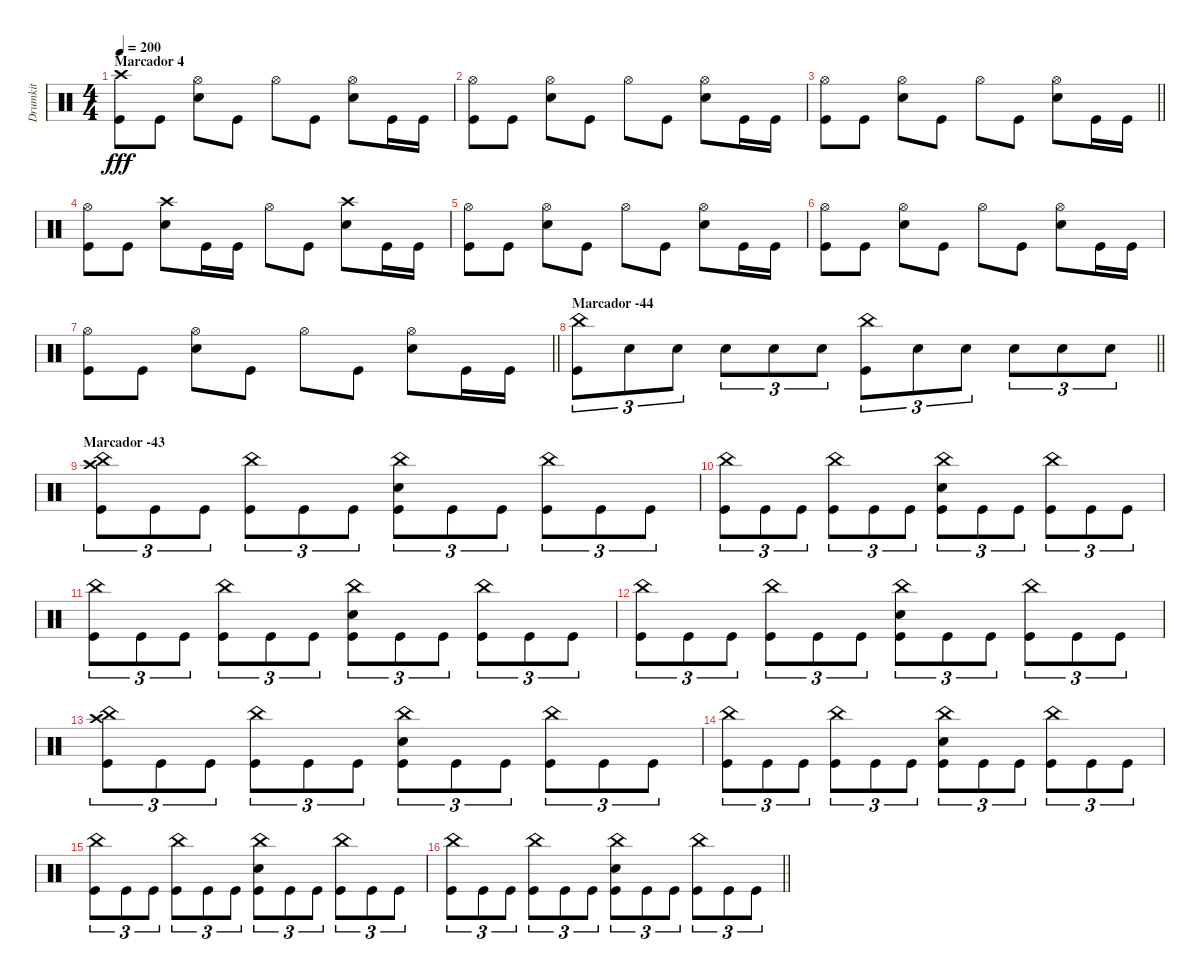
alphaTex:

\track ("Drumkit" "Drumkit") {instrument percussion}
\staff {score}
\articulation defaults
\ts (4 4)
\section ("" "Marcador 4")
\tempo 200
\clef neutral
\ks c
("Crash high (hit)" "Kick (hit)").8{dy fff} "Kick (hit)".8 ("Hi-Hat (open)" "Snare (hit) 2").8 "Kick (hit)".8 "Hi-Hat (open)".8 "Kick (hit)".8 ("Hi-Hat (open)" "Snare (hit) 2").8 "Kick (hit)".16 "Kick (hit)".16 |
("Hi-Hat (open)" "Kick (hit)").8 "Kick (hit)".8 ("Hi-Hat (open)" "Snare (hit) 2").8 "Kick (hit)".8 "Hi-Hat (open)".8 "Kick (hit)".8 ("Hi-Hat (open)" "Snare (hit) 2").8 "Kick (hit)".16 "Kick (hit)".16 |
\barLineRight lightlight
("Hi-Hat (open)" "Kick (hit)").8 "Kick (hit)".8 ("Hi-Hat (open)" "Snare (hit) 2").8 "Kick (hit)".8 "Hi-Hat (open)".8 "Kick (hit)".8 ("Hi-Hat (open)" "Snare (hit) 2").8 "Kick (hit)".16 "Kick (hit)".16 |
("Hi-Hat (open)" "Kick (hit)").8 "Kick (hit)".8 ("Crash high (hit)" "Snare (hit) 2").8 "Kick (hit)".16 "Kick (hit)".16 "Hi-Hat (open)".8 "Kick (hit)".8 ("Crash high (hit)" "Snare (hit) 2").8 "Kick (hit)".16 "Kick (hit)".16 |
("Hi-Hat (open)" "Kick (hit)").8 "Kick (hit)".8 ("Hi-Hat (open)" "Snare (hit) 2").8 "Kick (hit)".8 "Hi-Hat (open)".8 "Kick (hit)".8 ("Hi-Hat (open)" "Snare (hit) 2").8 "Kick (hit)".16 "Kick (hit)".16 |
("Hi-Hat (open)" "Kick (hit)").8 "Kick (hit)".8 ("Hi-Hat (open)" "Snare (hit) 2").8 "Kick (hit)".8 "Hi-Hat (open)".8 "Kick (hit)".8 ("Hi-Hat (open)" "Snare (hit) 2").8 "Kick (hit)".16 "Kick (hit)".16 |
\barLineRight lightlight
("Hi-Hat (open)" "Kick (hit)").8 "Kick (hit)".8 ("Hi-Hat (open)" "Snare (hit) 2").8 "Kick (hit)".8 "Hi-Hat (open)".8 "Kick (hit)".8 ("Hi-Hat (open)" "Snare (hit) 2").8 "Kick (hit)".16 "Kick (hit)".16 |
\section ("" "Marcador -44")
\barLineRight lightlight
("China (hit)" "Kick (hit)").8{tu (3 2)} "Snare (hit) 2".8{tu (3 2)} "Snare (hit) 2".8{tu (3 2)} "Snare (hit) 2".8{tu (3 2)} "Snare (hit) 2".8{tu (3 2)} "Snare (hit) 2".8{tu (3 2)} ("China (hit)" "Kick (hit)").8{tu (3 2)} "Snare (hit) 2".8{tu (3 2)} "Snare (hit) 2".8{tu (3 2)} "Snare (hit) 2".8{tu (3 2)} "Snare (hit) 2".8{tu (3 2)} "Snare (hit) 2".8{tu (3 2)} |
\section ("" "Marcador -43")
("Crash high (hit)" "China (hit)" "Kick (hit)").8{tu (3 2)} "Kick (hit)".8{tu (3 2)} "Kick (hit)".8{tu (3 2)} ("China (hit)" "Kick (hit)").8{tu (3 2)} "Kick (hit)".8{tu (3 2)} "Kick (hit)".8{tu (3 2)} ("China (hit)" "Snare (hit) 2" "Kick (hit)").8{tu (3 2)} "Kick (hit)".8{tu (3 2)} "Kick (hit)".8{tu (3 2)} ("China (hit)" "Kick (hit)").8{tu (3 2)} "Kick (hit)".8{tu (3 2)} "Kick (hit)".8{tu (3 2)} |
("China (hit)" "Kick (hit)").8{tu (3 2)} "Kick (hit)".8{tu (3 2)} "Kick (hit)".8{tu (3 2)} ("China (hit)" "Kick (hit)").8{tu (3 2)} "Kick (hit)".8{tu (3 2)} "Kick (hit)".8{tu (3 2)} ("China (hit)" "Snare (hit) 2" "Kick (hit)").8{tu (3 2)} "Kick (hit)".8{tu (3 2)} "Kick (hit)".8{tu (3 2)} ("China (hit)" "Kick (hit)").8{tu (3 2)} "Kick (hit)".8{tu (3 2)} "Kick (hit)".8{tu (3 2)} |
("China (hit)" "Kick (hit)").8{tu (3 2)} "Kick (hit)".8{tu (3 2)} "Kick (hit)".8{tu (3 2)} ("China (hit)" "Kick (hit)").8{tu (3 2)} "Kick (hit)".8{tu (3 2)} "Kick (hit)".8{tu (3 2)} ("China (hit)" "Snare (hit) 2" "Kick (hit)").8{tu (3 2)} "Kick (hit)".8{tu (3 2)} "Kick (hit)".8{tu (3 2)} ("China (hit)" "Kick (hit)").8{tu (3 2)} "Kick (hit)".8{tu (3 2)} "Kick (hit)".8{tu (3 2)} |
("China (hit)" "Kick (hit)").8{tu (3 2)} "Kick (hit)".8{tu (3 2)} "Kick (hit)".8{tu (3 2)} ("China (hit)" "Kick (hit)").8{tu (3 2)} "Kick (hit)".8{tu (3 2)} "Kick (hit)".8{tu (3 2)} ("China (hit)" "Snare (hit) 2" "Kick (hit)").8{tu (3 2)} "Kick (hit)".8{tu (3 2)} "Kick (hit)".8{tu (3 2)} ("China (hit)" "Kick (hit)").8{tu (3 2)} "Kick (hit)".8{tu (3 2)} "Kick (hit)".8{tu (3 2)} |
("Crash high (hit)" "China (hit)" "Kick (hit)").8{tu (3 2)} "Kick (hit)".8{tu (3 2)} "Kick (hit)".8{tu (3 2)} ("China (hit)" "Kick (hit)").8{tu (3 2)} "Kick (hit)".8{tu (3 2)} "Kick (hit)".8{tu (3 2)} ("China (hit)" "Snare (hit) 2" "Kick (hit)").8{tu (3 2)} "Kick (hit)".8{tu (3 2)} "Kick (hit)".8{tu (3 2)} ("China (hit)" "Kick (hit)").8{tu (3 2)} "Kick (hit)".8{tu (3 2)} "Kick (hit)".8{tu (3 2)} |
("China (hit)" "Kick (hit)").8{tu (3 2)} "Kick (hit)".8{tu (3 2)} "Kick (hit)".8{tu (3 2)} ("China (hit)" "Kick (hit)").8{tu (3 2)} "Kick (hit)".8{tu (3 2)} "Kick (hit)".8{tu (3 2)} ("China (hit)" "Snare (hit) 2" "Kick (hit)").8{tu (3 2)} "Kick (hit)".8{tu (3 2)} "Kick (hit)".8{tu (3 2)} ("China (hit)" "Kick (hit)").8{tu (3 2)} "Kick (hit)".8{tu (3 2)} "Kick (hit)".8{tu (3 2)} |
("China (hit)" "Kick (hit)").8{tu (3 2)} "Kick (hit)".8{tu (3 2)} "Kick (hit)".8{tu (3 2)} ("China (hit)" "Kick (hit)").8{tu (3 2)} "Kick (hit)".8{tu (3 2)} "Kick (hit)".8{tu (3 2)} ("China (hit)" "Snare (hit) 2" "Kick (hit)").8{tu (3 2)} "Kick (hit)".8{tu (3 2)} "Kick (hit)".8{tu (3 2)} ("China (hit)" "Kick (hit)").8{tu (3 2)} "Kick (hit)".8{tu (3 2)} "Kick (hit)".8{tu (3 2)} |
\barLineRight lightlight
("China (hit)" "Kick (hit)").8{tu (3 2)} "Kick (hit)".8{tu (3 2)} "Kick (hit)".8{tu (3 2)} ("China (hit)" "Kick (hit)").8{tu (3 2)} "Kick (hit)".8{tu (3 2)} "Kick (hit)".8{tu (3 2)} ("China (hit)" "Snare (hit) 2" "Kick (hit)").8{tu (3 2)} "Kick (hit)".8{tu (3 2)} "Kick (hit)".8{tu (3 2)} ("China (hit)" "Kick (hit)").8{tu (3 2)} "Kick (hit)".8{tu (3 2)} "Kick (hit)".8{tu (3 2)}
